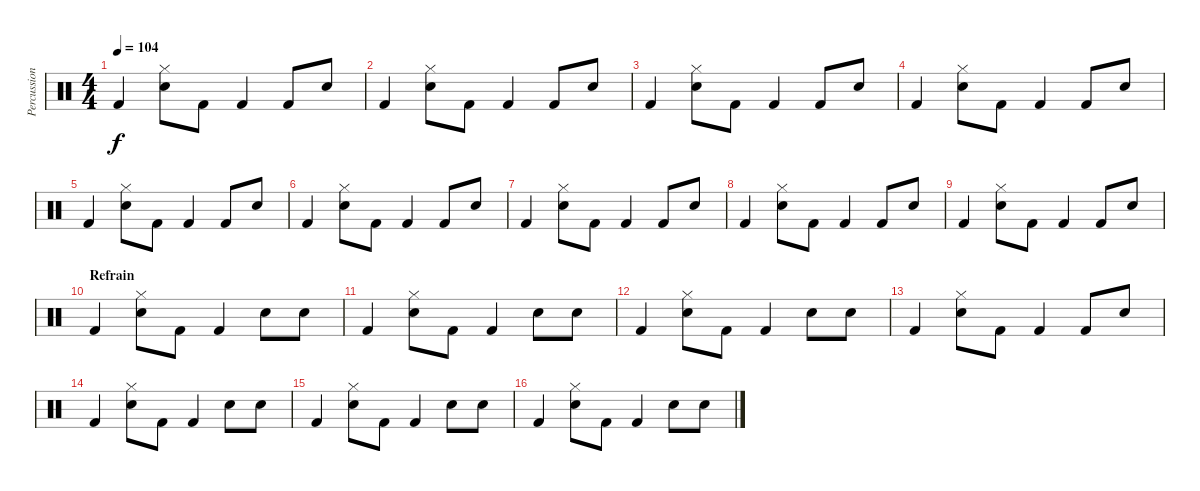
\track ("Percussions" "Percussion") {instrument percussion}
\staff {score}
\articulation defaults
\ts (4 4)
\tempo 104
\clef neutral
\ks c "Kick (hit) 2".4{dy f}
("Hi-Hat (closed)" "Snare (hit) 2").8 "Kick (hit) 2".8 "Kick (hit) 2".4 "Kick (hit) 2".8 "Electric Snare (hit)".8 |
"Kick (hit) 2".4 ("Hi-Hat (closed)" "Snare (hit) 2").8 "Kick (hit) 2".8 "Kick (hit) 2".4 "Kick (hit) 2".8 "Electric Snare (hit)".8 |
"Kick (hit) 2".4 ("Hi-Hat (closed)" "Snare (hit) 2").8 "Kick (hit) 2".8 "Kick (hit) 2".4 "Kick (hit) 2".8 "Electric Snare (hit)".8 |
"Kick (hit) 2".4 ("Hi-Hat (closed)" "Snare (hit) 2").8 "Kick (hit) 2".8 "Kick (hit) 2".4 "Kick (hit) 2".8 "Electric Snare (hit)".8 |
"Kick (hit) 2".4 ("Hi-Hat (closed)" "Snare (hit) 2").8 "Kick (hit) 2".8 "Kick (hit) 2".4 "Kick (hit) 2".8 "Electric Snare (hit)".8 |
"Kick (hit) 2".4 ("Hi-Hat (closed)" "Snare (hit) 2").8 "Kick (hit) 2".8 "Kick (hit) 2".4 "Kick (hit) 2".8 "Electric Snare (hit)".8 |
"Kick (hit) 2".4 ("Hi-Hat (closed)" "Snare (hit) 2").8 "Kick (hit) 2".8 "Kick (hit) 2".4 "Kick (hit) 2".8 "Electric Snare (hit)".8 |
"Kick (hit) 2".4 ("Hi-Hat (closed)" "Snare (hit) 2").8 "Kick (hit) 2".8 "Kick (hit) 2".4 "Kick (hit) 2".8 "Electric Snare (hit)".8 |
"Kick (hit) 2".4 ("Hi-Hat (closed)" "Snare (hit) 2").8 "Kick (hit) 2".8 "Kick (hit) 2".4 "Kick (hit) 2".8 "Electric Snare (hit)".8 |
\section ("" "Refrain")
"Kick (hit) 2".4 ("Hi-Hat (closed)" "Snare (hit) 2").8 "Kick (hit) 2".8 "Kick (hit) 2".4 "Snare (hit) 2".8 "Electric Snare (hit)".8 |
"Kick (hit) 2".4 ("Hi-Hat (closed)" "Snare (hit) 2").8 "Kick (hit) 2".8 "Kick (hit) 2".4 "Snare (hit) 2".8 "Electric Snare (hit)".8 |
"Kick (hit) 2".4 ("Hi-Hat (closed)" "Snare (hit) 2").8 "Kick (hit) 2".8 "Kick (hit) 2".4 "Snare (hit) 2".8 "Electric Snare (hit)".8 |
"Kick (hit) 2".4 ("Hi-Hat (closed)" "Snare (hit) 2").8 "Kick (hit) 2".8 "Kick (hit) 2".4 "Kick (hit) 2".8 "Electric Snare (hit)".8 |
"Kick (hit) 2".4 ("Hi-Hat (closed)" "Snare (hit) 2").8 "Kick (hit) 2".8 "Kick (hit) 2".4 "Snare (hit) 2".8 "Electric Snare (hit)".8 |
"Kick (hit) 2".4 ("Hi-Hat (closed)" "Snare (hit) 2").8 "Kick (hit) 2".8 "Kick (hit) 2".4 "Snare (hit) 2".8 "Electric Snare (hit)".8 |
"Kick (hit) 2".4 ("Hi-Hat (closed)" "Snare (hit) 2").8 "Kick (hit) 2".8 "Kick (hit) 2".4 "Snare (hit) 2".8 "Electric Snare (hit)".8
